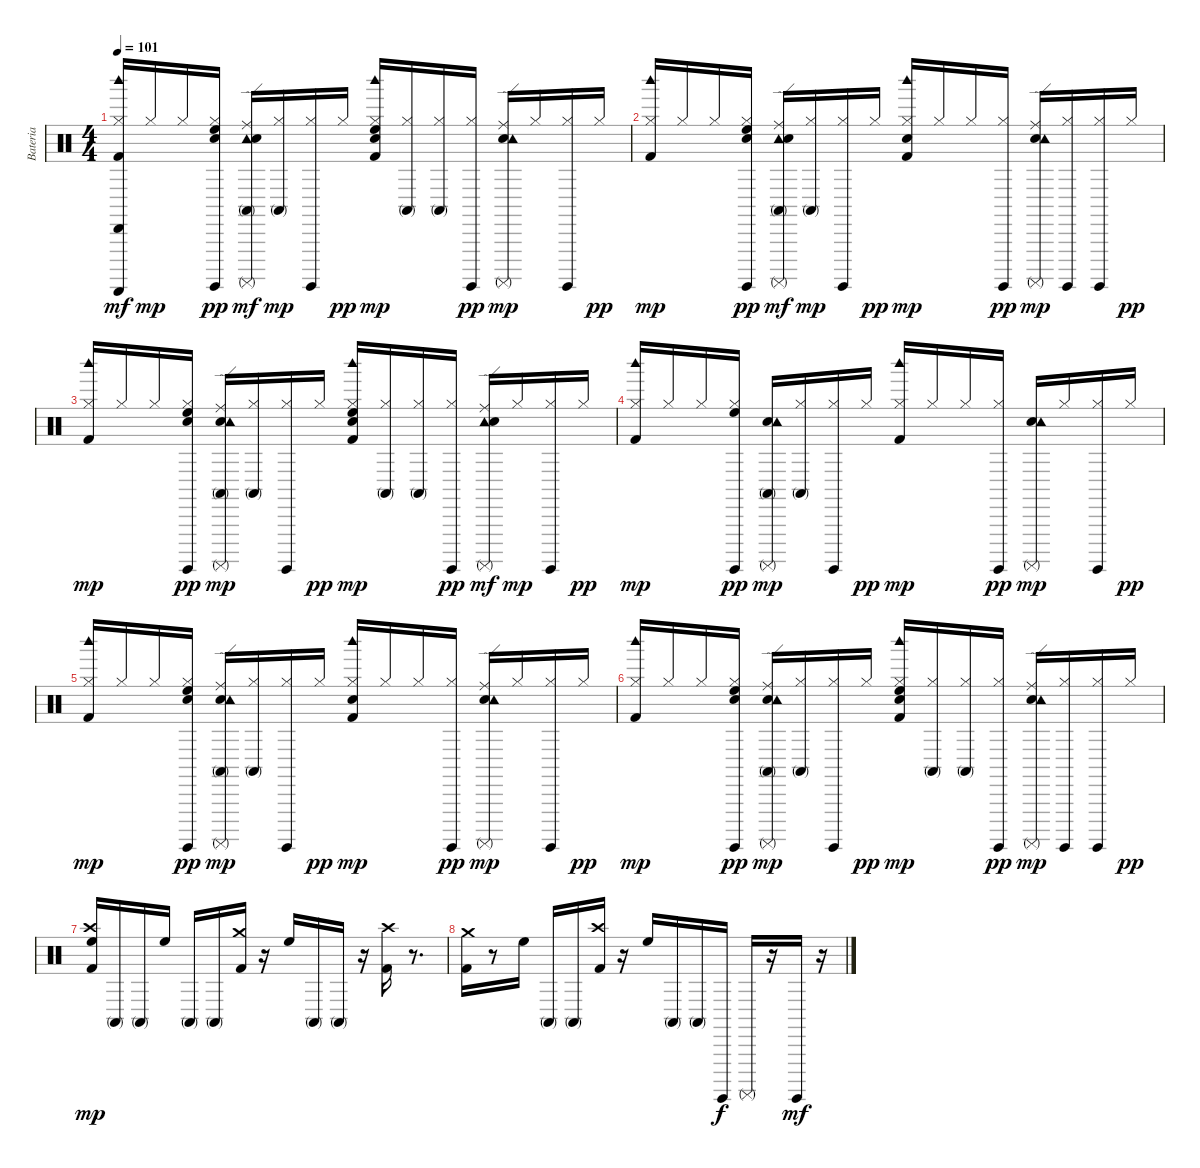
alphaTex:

\track ("Bateria" "Bateria") {instrument percussion}
\staff {score}
\articulation defaults
\ts (4 4)
\tempo 101
\clef neutral
\ks c
("Kick (hit) 2" "Hi-Hat (closed)" "Woodblock high (hit)" "Guiro (scrap-return)" "Cabasa (hit)").16{dy mf} "Hi-Hat (closed)".16{dy mp} "Hi-Hat (closed)".16 ("High Floor Tom (hit)" "Snare (hit)" "Surdo (hit)" "Hi-Hat (closed)").16{dy pp} ("Conga high (mute)" "Ride (edge)" "Tambourine (hit)" "Electric Snare (hit)" "Surdo (mute)").16{dy mf} ("Conga high (mute)" "Hi-Hat (closed)").16{dy mp} ("Surdo (hit)" "Hi-Hat (closed)").16 "Hi-Hat (closed)".16{dy pp} ("High Floor Tom (hit)" "Snare (hit)" "Kick (hit) 2" "Hi-Hat (closed)" "Woodblock high (hit)").16{dy mp} ("Conga high (mute)" "Hi-Hat (closed)").16 ("Conga high (mute)" "Hi-Hat (closed)").16 ("Surdo (hit)" "Hi-Hat (closed)").16{dy pp} ("Ride (edge)" "Electric Snare (hit)" "Surdo (mute)" "Tambourine (hit)").16{dy mp} "Hi-Hat (closed)".16 ("Surdo (hit)" "Hi-Hat (closed)").16 "Hi-Hat (closed)".16{dy pp} |
("Woodblock high (hit)" "Kick (hit) 2" "Hi-Hat (closed)").16{dy mp} "Hi-Hat (closed)".16 "Hi-Hat (closed)".16 ("High Floor Tom (hit)" "Snare (hit)" "Surdo (hit)" "Hi-Hat (closed)").16{dy pp} ("Conga high (mute)" "Ride (edge)" "Tambourine (hit)" "Electric Snare (hit)" "Surdo (mute)").16{dy mf} ("Conga high (mute)" "Hi-Hat (closed)").16{dy mp} ("Surdo (hit)" "Hi-Hat (closed)").16 "Hi-Hat (closed)".16{dy pp} ("Snare (hit)" "Kick (hit) 2" "Hi-Hat (closed)" "Woodblock high (hit)").16{dy mp} "Hi-Hat (closed)".16 "Hi-Hat (closed)".16 ("Surdo (hit)" "Hi-Hat (closed)").16{dy pp} ("Ride (edge)" "Electric Snare (hit)" "Surdo (mute)" "Tambourine (hit)").16{dy mp} ("Surdo (hit)" "Hi-Hat (closed)").16 ("Surdo (hit)" "Hi-Hat (closed)").16 "Hi-Hat (closed)".16{dy pp} |
("Woodblock high (hit)" "Kick (hit) 2" "Hi-Hat (closed)").16{dy mp} "Hi-Hat (closed)".16 "Hi-Hat (closed)".16 ("High Floor Tom (hit)" "Snare (hit)" "Surdo (hit)" "Hi-Hat (closed)").16{dy pp} ("Conga high (mute)" "Ride (edge)" "Electric Snare (hit)" "Surdo (mute)" "Tambourine (hit)").16{dy mp} ("Conga high (mute)" "Hi-Hat (closed)").16 ("Surdo (hit)" "Hi-Hat (closed)").16 "Hi-Hat (closed)".16{dy pp} ("High Floor Tom (hit)" "Snare (hit)" "Hi-Hat (closed)" "Woodblock high (hit)" "Kick (hit) 2").16{dy mp} ("Conga high (mute)" "Hi-Hat (closed)").16 ("Conga high (mute)" "Hi-Hat (closed)").16 ("Surdo (hit)" "Hi-Hat (closed)").16{dy pp} ("Ride (edge)" "Tambourine (hit)" "Electric Snare (hit)" "Surdo (mute)").16{dy mf} "Hi-Hat (closed)".16{dy mp} ("Surdo (hit)" "Hi-Hat (closed)").16 "Hi-Hat (closed)".16{dy pp} |
("Kick (hit) 2" "Hi-Hat (closed)" "Woodblock high (hit)").16{dy mp} "Hi-Hat (closed)".16 "Hi-Hat (closed)".16 ("High Floor Tom (hit)" "Surdo (hit)" "Hi-Hat (closed)").16{dy pp} ("Conga high (mute)" "Electric Snare (hit)" "Surdo (mute)" "Tambourine (hit)").16{dy mp} ("Conga high (mute)" "Hi-Hat (closed)").16 ("Surdo (hit)" "Hi-Hat (closed)").16 "Hi-Hat (closed)".16{dy pp} ("Kick (hit) 2" "Hi-Hat (closed)" "Woodblock high (hit)").16{dy mp} "Hi-Hat (closed)".16 "Hi-Hat (closed)".16 ("Surdo (hit)" "Hi-Hat (closed)").16{dy pp} ("Electric Snare (hit)" "Surdo (mute)" "Tambourine (hit)").16{dy mp} "Hi-Hat (closed)".16 ("Surdo (hit)" "Hi-Hat (closed)").16 "Hi-Hat (closed)".16{dy pp} |
("Kick (hit) 2" "Hi-Hat (closed)" "Woodblock high (hit)").16{dy mp} "Hi-Hat (closed)".16 "Hi-Hat (closed)".16 ("High Floor Tom (hit)" "Snare (hit)" "Surdo (hit)" "Hi-Hat (closed)").16{dy pp} ("Conga high (mute)" "Ride (edge)" "Electric Snare (hit)" "Surdo (mute)" "Tambourine (hit)").16{dy mp} ("Conga high (mute)" "Hi-Hat (closed)").16 ("Surdo (hit)" "Hi-Hat (closed)").16 "Hi-Hat (closed)".16{dy pp} ("Snare (hit)" "Kick (hit) 2" "Hi-Hat (closed)" "Woodblock high (hit)").16{dy mp} "Hi-Hat (closed)".16 "Hi-Hat (closed)".16 ("Surdo (hit)" "Hi-Hat (closed)").16{dy pp} ("Ride (edge)" "Electric Snare (hit)" "Surdo (mute)" "Tambourine (hit)").16{dy mp} "Hi-Hat (closed)".16 ("Surdo (hit)" "Hi-Hat (closed)").16 "Hi-Hat (closed)".16{dy pp} |
("Hi-Hat (closed)" "Woodblock high (hit)" "Kick (hit) 2").16{dy mp} "Hi-Hat (closed)".16 "Hi-Hat (closed)".16 ("High Floor Tom (hit)" "Snare (hit)" "Surdo (hit)" "Hi-Hat (closed)").16{dy pp} ("Conga high (mute)" "Ride (edge)" "Electric Snare (hit)" "Surdo (mute)" "Tambourine (hit)").16{dy mp} ("Conga high (mute)" "Hi-Hat (closed)").16 ("Surdo (hit)" "Hi-Hat (closed)").16 "Hi-Hat (closed)".16{dy pp} ("High Floor Tom (hit)" "Snare (hit)" "Hi-Hat (closed)" "Woodblock high (hit)" "Kick (hit) 2").16{dy mp} ("Conga high (mute)" "Hi-Hat (closed)").16 ("Conga high (mute)" "Hi-Hat (closed)").16 ("Surdo (hit)" "Hi-Hat (closed)").16{dy pp} ("Ride (edge)" "Electric Snare (hit)" "Surdo (mute)" "Tambourine (hit)").16{dy mp} ("Surdo (hit)" "Hi-Hat (closed)").16 ("Surdo (hit)" "Hi-Hat (closed)").16 "Hi-Hat (closed)".16{dy pp} |
("High Floor Tom (hit)" "Kick (hit) 2" "Crash high (hit)").16{dy mp} "Conga high (mute)".16 "Conga high (mute)".16 "High Floor Tom (hit)".16 "Conga high (mute)".16 "Conga high (mute)".16 ("Kick (hit) 2" "Crash medium (hit)").16 r.16 "High Floor Tom (hit)".16 "Conga high (mute)".16 "Conga high (mute)".16 r.16 ("Kick (hit) 2" "Crash high (hit)").16 r.8{d} |
("Kick (hit) 2" "Crash medium (hit)").16 r.8 "High Floor Tom (hit)".16 "Conga high (mute)".16 "Conga high (mute)".16 ("Kick (hit) 2" "Crash high (hit)").16 r.16 "High Floor Tom (hit)".16 "Conga high (mute)".16 "Conga high (mute)".16 "Surdo (hit)".16{dy f} "Surdo (mute)".16 r.16 "Surdo (hit)".16{dy mf} r.16
